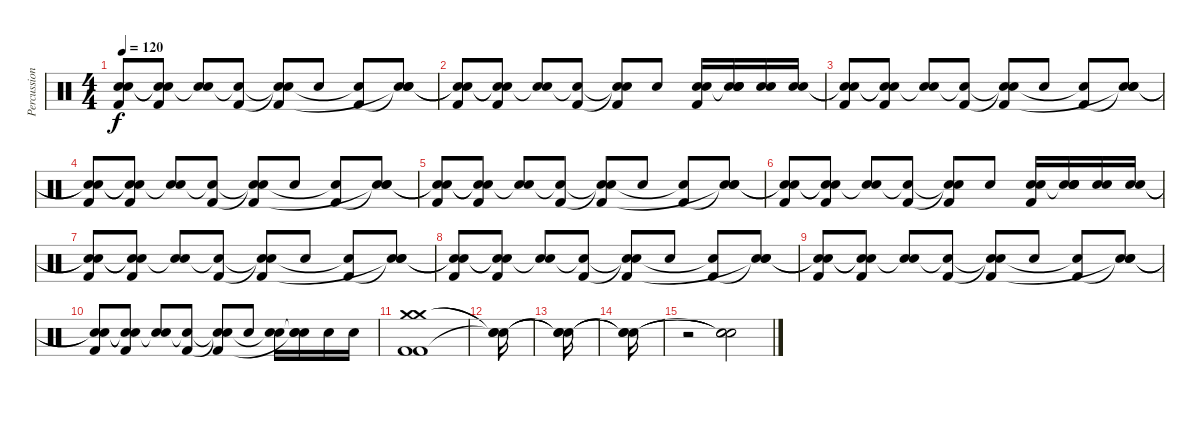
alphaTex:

\track ("Percussion" "Percussion") {instrument percussion}
\staff {score}
\articulation defaults
\ts (4 4)
\tempo 120
\clef neutral
\ks c
("Snare (hit)"{t} "Snare (hit)"{t} "Kick (hit) 2").8{dy f} ("Snare (hit)"{t} "Snare (hit)"{t} "Kick (hit) 2").8 ("Snare (hit) 2" "Snare (hit)"{t}).8 ("Snare (hit)"{t} "Kick (hit) 2").8 ("Snare (hit)"{t} "Snare (hit)"{t} "Kick (hit) 2").8 "Snare (hit) 2".8 ("Kick (hit) 2" "Snare (hit)"{t}).8 ("Snare (hit)"{t} "Snare (hit) 2" "Snare (hit)"{t}).8 |
("Snare (hit)"{t} "Snare (hit)"{t} "Kick (hit) 2").8 ("Snare (hit)"{t} "Snare (hit)"{t} "Kick (hit) 2").8 ("Snare (hit) 2" "Snare (hit)"{t}).8 ("Snare (hit)"{t} "Kick (hit) 2").8 ("Snare (hit)"{t} "Snare (hit)"{t} "Kick (hit) 2").8 "Snare (hit) 2".8 ("Snare (hit) 2" "Kick (hit) 2" "Snare (hit) 2").16 ("Snare (hit)"{t} "Snare (hit) 2" "Snare (hit) 2" "Snare (hit)").16 ("Snare (hit) 2" "Snare (hit) 2").16 ("Snare (hit) 2" "Snare (hit) 2").16 |
("Snare (hit)"{t} "Snare (hit)"{t} "Kick (hit) 2").8 ("Snare (hit)"{t} "Snare (hit)"{t} "Kick (hit) 2").8 ("Snare (hit) 2" "Snare (hit)"{t}).8 ("Snare (hit)"{t} "Kick (hit) 2").8 ("Snare (hit)"{t} "Snare (hit)"{t} "Kick (hit) 2").8 "Snare (hit) 2".8 ("Kick (hit) 2" "Snare (hit)"{t}).8 ("Snare (hit)"{t} "Snare (hit) 2" "Snare (hit)"{t}).8 |
("Snare (hit)"{t} "Snare (hit)"{t} "Kick (hit) 2").8 ("Snare (hit)"{t} "Snare (hit)"{t} "Kick (hit) 2").8 ("Snare (hit) 2" "Snare (hit)"{t}).8 ("Snare (hit)"{t} "Kick (hit) 2").8 ("Snare (hit)"{t} "Snare (hit)"{t} "Kick (hit) 2").8 "Snare (hit) 2".8 ("Kick (hit) 2" "Snare (hit)"{t}).8 ("Snare (hit)"{t} "Snare (hit) 2" "Snare (hit)"{t}).8 |
("Snare (hit)"{t} "Snare (hit)"{t} "Kick (hit) 2").8 ("Snare (hit)"{t} "Snare (hit)"{t} "Kick (hit) 2").8 ("Snare (hit) 2" "Snare (hit)"{t}).8 ("Snare (hit)"{t} "Kick (hit) 2").8 ("Snare (hit)"{t} "Snare (hit)"{t} "Kick (hit) 2").8 "Snare (hit) 2".8 ("Kick (hit) 2" "Snare (hit)"{t}).8 ("Snare (hit)"{t} "Snare (hit) 2" "Snare (hit)"{t}).8 |
("Snare (hit)"{t} "Snare (hit)"{t} "Kick (hit) 2").8 ("Snare (hit)"{t} "Snare (hit)"{t} "Kick (hit) 2").8 ("Snare (hit) 2" "Snare (hit)"{t}).8 ("Snare (hit)"{t} "Kick (hit) 2").8 ("Snare (hit)"{t} "Snare (hit)"{t} "Kick (hit) 2").8 "Snare (hit) 2".8 ("Snare (hit) 2" "Kick (hit) 2" "Snare (hit) 2").16 ("Snare (hit)"{t} "Snare (hit) 2" "Snare (hit) 2" "Snare (hit)").16 ("Snare (hit) 2" "Snare (hit) 2").16 ("Snare (hit) 2" "Snare (hit) 2").16 |
("Snare (hit)"{t} "Snare (hit)"{t} "Kick (hit) 2").8 ("Snare (hit)"{t} "Snare (hit)"{t} "Kick (hit) 2").8 ("Snare (hit) 2" "Snare (hit)"{t}).8 ("Snare (hit)"{t} "Kick (hit) 2").8 ("Snare (hit)"{t} "Snare (hit)"{t} "Kick (hit) 2").8 "Snare (hit) 2".8 ("Kick (hit) 2" "Snare (hit)"{t}).8 ("Snare (hit)"{t} "Snare (hit) 2" "Snare (hit)"{t}).8 |
("Snare (hit)"{t} "Snare (hit)"{t} "Kick (hit) 2").8 ("Snare (hit)"{t} "Snare (hit)"{t} "Kick (hit) 2").8 ("Snare (hit) 2" "Snare (hit)"{t}).8 ("Snare (hit)"{t} "Kick (hit) 2").8 ("Snare (hit)"{t} "Snare (hit)"{t} "Kick (hit) 2").8 "Snare (hit) 2".8 ("Kick (hit) 2" "Snare (hit)"{t}).8 ("Snare (hit)"{t} "Snare (hit) 2" "Snare (hit)"{t}).8 |
("Snare (hit)"{t} "Snare (hit)"{t} "Kick (hit) 2").8 ("Snare (hit)"{t} "Snare (hit)"{t} "Kick (hit) 2").8 ("Snare (hit) 2" "Snare (hit)"{t}).8 ("Snare (hit)"{t} "Kick (hit) 2").8 ("Snare (hit)"{t} "Snare (hit)"{t} "Kick (hit) 2").8 "Snare (hit) 2".8 ("Kick (hit) 2" "Snare (hit)"{t}).8 ("Snare (hit)"{t} "Snare (hit) 2" "Snare (hit)"{t}).8 |
("Snare (hit)"{t} "Snare (hit)"{t} "Kick (hit) 2").8 ("Snare (hit)"{t} "Snare (hit)"{t} "Kick (hit) 2").8 ("Snare (hit) 2" "Snare (hit)"{t}).8 ("Snare (hit)"{t} "Kick (hit) 2").8 ("Snare (hit)"{t} "Snare (hit)"{t} "Kick (hit) 2").8 "Snare (hit) 2".8 ("Snare (hit) 2" "Snare (hit)"{t}).16 ("Snare (hit)"{t} "Snare (hit) 2" "Snare (hit)"{t}).16 "Snare (hit) 2".16 "Snare (hit) 2".16 |
("Crash medium (hit)" "Crash medium (hit)" "Kick (hit) 2" "Kick (hit) 2").1 |
("Snare (hit)"{t} "Snare (hit)"{t} "Snare (hit)"{t}).16 |
("Snare (hit)"{t} "Snare (hit)"{t} "Snare (hit)"{t}).16 |
("Snare (hit)"{t} "Snare (hit)"{t} "Snare (hit)"{t}).16 |
r.2 ("Snare (hit)"{t} "Snare (hit)"{t} "Snare (hit)"{t}).2
